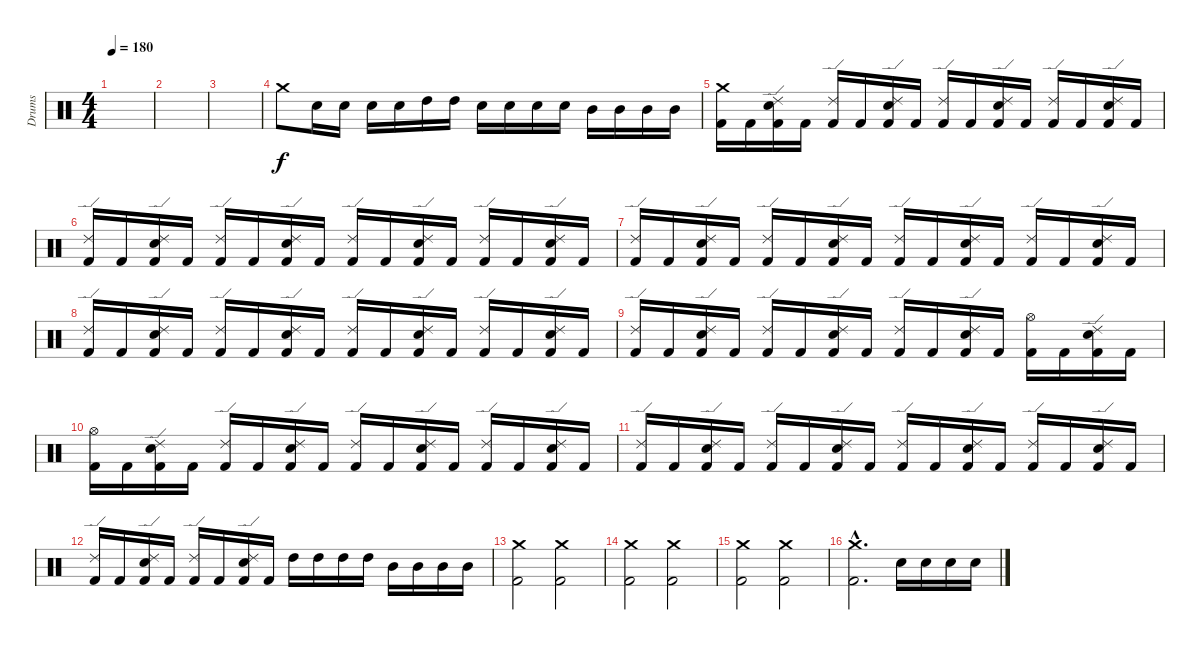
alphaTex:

\track ("Drums" "Drums") {instrument percussion}
\staff {score}
\articulation defaults
\ts (4 4)
\tempo 180
\clef neutral
\ks c
|
|
|
"Crash medium (hit)".8 "Electric Snare (hit)".16 "Electric Snare (hit)".16 "Electric Snare (hit)".16 "Electric Snare (hit)".16 "High Tom (hit)".16 "High Tom (hit)".16 "Electric Snare (hit)".16 "Electric Snare (hit)".16 "Electric Snare (hit)".16 "Electric Snare (hit)".16 "Mid Tom (hit)".16 "Mid Tom (hit)".16 "Mid Tom (hit)".16 "Mid Tom (hit)".16 |
("Crash medium (hit)" "Kick (hit) 2").16 "Kick (hit) 2".16 ("Ride (edge) 2" "Electric Snare (hit)" "Kick (hit) 2").16 "Kick (hit) 2".16 ("Ride (edge) 2" "Kick (hit) 2").16 "Kick (hit) 2".16 ("Ride (edge) 2" "Electric Snare (hit)" "Kick (hit) 2").16 "Kick (hit) 2".16 ("Ride (edge) 2" "Kick (hit) 2").16 "Kick (hit) 2".16 ("Ride (edge) 2" "Electric Snare (hit)" "Kick (hit) 2").16 "Kick (hit) 2".16 ("Ride (edge) 2" "Kick (hit) 2").16 "Kick (hit) 2".16 ("Ride (edge) 2" "Electric Snare (hit)" "Kick (hit) 2").16 "Kick (hit) 2".16 |
("Ride (edge) 2" "Kick (hit) 2").16 "Kick (hit) 2".16 ("Ride (edge) 2" "Electric Snare (hit)" "Kick (hit) 2").16 "Kick (hit) 2".16 ("Ride (edge) 2" "Kick (hit) 2").16 "Kick (hit) 2".16 ("Ride (edge) 2" "Electric Snare (hit)" "Kick (hit) 2").16 "Kick (hit) 2".16 ("Ride (edge) 2" "Kick (hit) 2").16 "Kick (hit) 2".16 ("Ride (edge) 2" "Electric Snare (hit)" "Kick (hit) 2").16 "Kick (hit) 2".16 ("Ride (edge) 2" "Kick (hit) 2").16 "Kick (hit) 2".16 ("Ride (edge) 2" "Electric Snare (hit)" "Kick (hit) 2").16 "Kick (hit) 2".16 |
("Ride (edge) 2" "Kick (hit) 2").16 "Kick (hit) 2".16 ("Ride (edge) 2" "Electric Snare (hit)" "Kick (hit) 2").16 "Kick (hit) 2".16 ("Ride (edge) 2" "Kick (hit) 2").16 "Kick (hit) 2".16 ("Ride (edge) 2" "Electric Snare (hit)" "Kick (hit) 2").16 "Kick (hit) 2".16 ("Ride (edge) 2" "Kick (hit) 2").16 "Kick (hit) 2".16 ("Ride (edge) 2" "Electric Snare (hit)" "Kick (hit) 2").16 "Kick (hit) 2".16 ("Ride (edge) 2" "Kick (hit) 2").16 "Kick (hit) 2".16 ("Ride (edge) 2" "Electric Snare (hit)" "Kick (hit) 2").16 "Kick (hit) 2".16 |
("Ride (edge) 2" "Kick (hit) 2").16 "Kick (hit) 2".16 ("Ride (edge) 2" "Electric Snare (hit)" "Kick (hit) 2").16 "Kick (hit) 2".16 ("Ride (edge) 2" "Kick (hit) 2").16 "Kick (hit) 2".16 ("Ride (edge) 2" "Electric Snare (hit)" "Kick (hit) 2").16 "Kick (hit) 2".16 ("Ride (edge) 2" "Kick (hit) 2").16 "Kick (hit) 2".16 ("Ride (edge) 2" "Electric Snare (hit)" "Kick (hit) 2").16 "Kick (hit) 2".16 ("Ride (edge) 2" "Kick (hit) 2").16 "Kick (hit) 2".16 ("Ride (edge) 2" "Electric Snare (hit)" "Kick (hit) 2").16 "Kick (hit) 2".16 |
("Ride (edge) 2" "Kick (hit) 2").16 "Kick (hit) 2".16 ("Ride (edge) 2" "Electric Snare (hit)" "Kick (hit) 2").16 "Kick (hit) 2".16 ("Ride (edge) 2" "Kick (hit) 2").16 "Kick (hit) 2".16 ("Ride (edge) 2" "Electric Snare (hit)" "Kick (hit) 2").16 "Kick (hit) 2".16 ("Ride (edge) 2" "Kick (hit) 2").16 "Kick (hit) 2".16 ("Ride (edge) 2" "Electric Snare (hit)" "Kick (hit) 2").16 "Kick (hit) 2".16 ("Hi-Hat (open)" "Kick (hit) 2").16 "Kick (hit) 2".16 ("Ride (edge) 2" "Electric Snare (hit)" "Kick (hit) 2").16 "Kick (hit) 2".16 |
("Hi-Hat (open)" "Kick (hit) 2").16 "Kick (hit) 2".16 ("Ride (edge) 2" "Electric Snare (hit)" "Kick (hit) 2").16 "Kick (hit) 2".16 ("Ride (edge) 2" "Kick (hit) 2").16 "Kick (hit) 2".16 ("Ride (edge) 2" "Electric Snare (hit)" "Kick (hit) 2").16 "Kick (hit) 2".16 ("Ride (edge) 2" "Kick (hit) 2").16 "Kick (hit) 2".16 ("Ride (edge) 2" "Electric Snare (hit)" "Kick (hit) 2").16 "Kick (hit) 2".16 ("Ride (edge) 2" "Kick (hit) 2").16 "Kick (hit) 2".16 ("Ride (edge) 2" "Electric Snare (hit)" "Kick (hit) 2").16 "Kick (hit) 2".16 |
("Ride (edge) 2" "Kick (hit) 2").16 "Kick (hit) 2".16 ("Ride (edge) 2" "Electric Snare (hit)" "Kick (hit) 2").16 "Kick (hit) 2".16 ("Ride (edge) 2" "Kick (hit) 2").16 "Kick (hit) 2".16 ("Ride (edge) 2" "Electric Snare (hit)" "Kick (hit) 2").16 "Kick (hit) 2".16 ("Ride (edge) 2" "Kick (hit) 2").16 "Kick (hit) 2".16 ("Ride (edge) 2" "Electric Snare (hit)" "Kick (hit) 2").16 "Kick (hit) 2".16 ("Ride (edge) 2" "Kick (hit) 2").16 "Kick (hit) 2".16 ("Ride (edge) 2" "Electric Snare (hit)" "Kick (hit) 2").16 "Kick (hit) 2".16 |
("Ride (edge) 2" "Kick (hit) 2").16 "Kick (hit) 2".16 ("Ride (edge) 2" "Electric Snare (hit)" "Kick (hit) 2").16 "Kick (hit) 2".16 ("Ride (edge) 2" "Kick (hit) 2").16 "Kick (hit) 2".16 ("Ride (edge) 2" "Electric Snare (hit)" "Kick (hit) 2").16 "Kick (hit) 2".16 "High Tom (hit)".16 "High Tom (hit)".16 "High Tom (hit)".16 "High Tom (hit)".16 "Mid Tom (hit)".16 "Mid Tom (hit)".16 "Mid Tom (hit)".16 "Mid Tom (hit)".16 |
("Crash medium (hit)" "Kick (hit) 2").2 ("Crash medium (hit)" "Kick (hit) 2").2 |
("Crash medium (hit)" "Kick (hit) 2").2 ("Crash medium (hit)" "Kick (hit) 2").2 |
("Crash medium (hit)" "Kick (hit) 2").2 ("Crash medium (hit)" "Kick (hit) 2").2 |
("Crash medium (hit)"{hac} "Kick (hit) 2"{hac}).2{d} "Electric Snare (hit)".16 "Electric Snare (hit)".16 "Electric Snare (hit)".16 "Electric Snare (hit)".16
